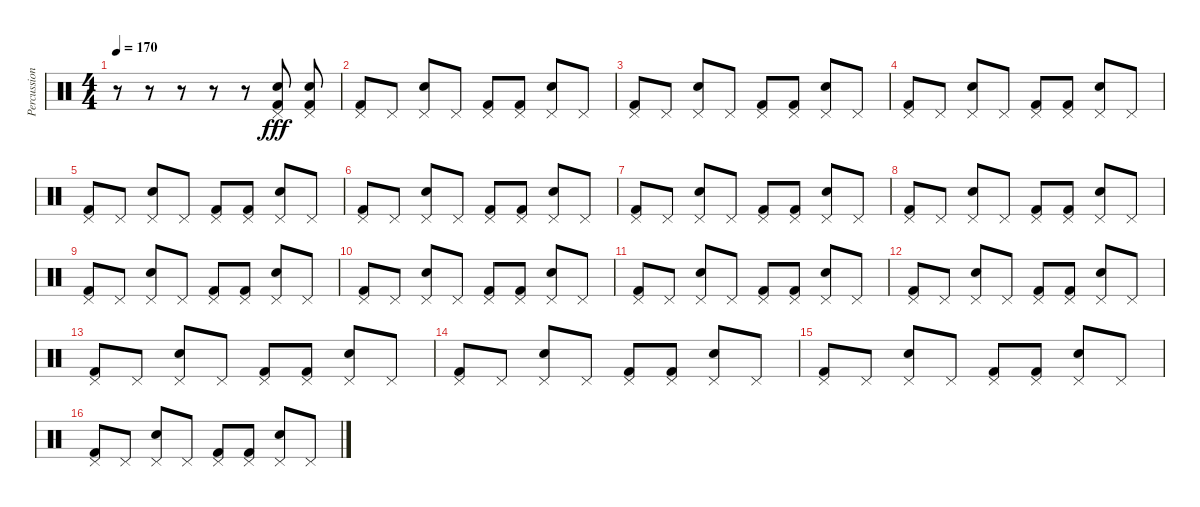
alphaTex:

\track ("Percussion" "Percussion") {instrument percussion}
\staff {score}
\articulation defaults
\ts (4 4)
\tempo 170
\clef neutral
\ks c
r.8{dy fff} r.8 r.8 r.8 r.8 ("Pedal Hi-Hat (hit)" "Snare (hit) 2" "Kick (hit) 2").8 ("Pedal Hi-Hat (hit)" "Snare (hit) 2" "Kick (hit) 2").8 |
("Pedal Hi-Hat (hit)" "Kick (hit) 2").8 "Pedal Hi-Hat (hit)".8 ("Pedal Hi-Hat (hit)" "Snare (hit) 2").8 "Pedal Hi-Hat (hit)".8 ("Pedal Hi-Hat (hit)" "Kick (hit) 2").8 ("Pedal Hi-Hat (hit)" "Kick (hit) 2").8 ("Pedal Hi-Hat (hit)" "Snare (hit) 2").8 "Pedal Hi-Hat (hit)".8 |
("Pedal Hi-Hat (hit)" "Kick (hit) 2").8 "Pedal Hi-Hat (hit)".8 ("Pedal Hi-Hat (hit)" "Snare (hit) 2").8 "Pedal Hi-Hat (hit)".8 ("Pedal Hi-Hat (hit)" "Kick (hit) 2").8 ("Pedal Hi-Hat (hit)" "Kick (hit) 2").8 ("Pedal Hi-Hat (hit)" "Snare (hit) 2").8 "Pedal Hi-Hat (hit)".8 |
("Pedal Hi-Hat (hit)" "Kick (hit) 2").8 "Pedal Hi-Hat (hit)".8 ("Pedal Hi-Hat (hit)" "Snare (hit) 2").8 "Pedal Hi-Hat (hit)".8 ("Pedal Hi-Hat (hit)" "Kick (hit) 2").8 ("Pedal Hi-Hat (hit)" "Kick (hit) 2").8 ("Pedal Hi-Hat (hit)" "Snare (hit) 2").8 "Pedal Hi-Hat (hit)".8 |
("Pedal Hi-Hat (hit)" "Kick (hit) 2").8 "Pedal Hi-Hat (hit)".8 ("Pedal Hi-Hat (hit)" "Snare (hit) 2").8 "Pedal Hi-Hat (hit)".8 ("Pedal Hi-Hat (hit)" "Kick (hit) 2").8 ("Pedal Hi-Hat (hit)" "Kick (hit) 2").8 ("Pedal Hi-Hat (hit)" "Snare (hit) 2").8 "Pedal Hi-Hat (hit)".8 |
("Pedal Hi-Hat (hit)" "Kick (hit) 2").8 "Pedal Hi-Hat (hit)".8 ("Pedal Hi-Hat (hit)" "Snare (hit) 2").8 "Pedal Hi-Hat (hit)".8 ("Pedal Hi-Hat (hit)" "Kick (hit) 2").8 ("Pedal Hi-Hat (hit)" "Kick (hit) 2").8 ("Pedal Hi-Hat (hit)" "Snare (hit) 2").8 "Pedal Hi-Hat (hit)".8 |
("Pedal Hi-Hat (hit)" "Kick (hit) 2").8 "Pedal Hi-Hat (hit)".8 ("Pedal Hi-Hat (hit)" "Snare (hit) 2").8 "Pedal Hi-Hat (hit)".8 ("Pedal Hi-Hat (hit)" "Kick (hit) 2").8 ("Pedal Hi-Hat (hit)" "Kick (hit) 2").8 ("Pedal Hi-Hat (hit)" "Snare (hit) 2").8 "Pedal Hi-Hat (hit)".8 |
("Pedal Hi-Hat (hit)" "Kick (hit) 2").8 "Pedal Hi-Hat (hit)".8 ("Pedal Hi-Hat (hit)" "Snare (hit) 2").8 "Pedal Hi-Hat (hit)".8 ("Pedal Hi-Hat (hit)" "Kick (hit) 2").8 ("Pedal Hi-Hat (hit)" "Kick (hit) 2").8 ("Pedal Hi-Hat (hit)" "Snare (hit) 2").8 "Pedal Hi-Hat (hit)".8 |
("Pedal Hi-Hat (hit)" "Kick (hit) 2").8 "Pedal Hi-Hat (hit)".8 ("Pedal Hi-Hat (hit)" "Snare (hit) 2").8 "Pedal Hi-Hat (hit)".8 ("Pedal Hi-Hat (hit)" "Kick (hit) 2").8 ("Pedal Hi-Hat (hit)" "Kick (hit) 2").8 ("Pedal Hi-Hat (hit)" "Snare (hit) 2").8 "Pedal Hi-Hat (hit)".8 |
("Pedal Hi-Hat (hit)" "Kick (hit) 2").8 "Pedal Hi-Hat (hit)".8 ("Pedal Hi-Hat (hit)" "Snare (hit) 2").8 "Pedal Hi-Hat (hit)".8 ("Pedal Hi-Hat (hit)" "Kick (hit) 2").8 ("Pedal Hi-Hat (hit)" "Kick (hit) 2").8 ("Pedal Hi-Hat (hit)" "Snare (hit) 2").8 "Pedal Hi-Hat (hit)".8 |
("Pedal Hi-Hat (hit)" "Kick (hit) 2").8 "Pedal Hi-Hat (hit)".8 ("Pedal Hi-Hat (hit)" "Snare (hit) 2").8 "Pedal Hi-Hat (hit)".8 ("Pedal Hi-Hat (hit)" "Kick (hit) 2").8 ("Pedal Hi-Hat (hit)" "Kick (hit) 2").8 ("Pedal Hi-Hat (hit)" "Snare (hit) 2").8 "Pedal Hi-Hat (hit)".8 |
("Pedal Hi-Hat (hit)" "Kick (hit) 2").8 "Pedal Hi-Hat (hit)".8 ("Pedal Hi-Hat (hit)" "Snare (hit) 2").8 "Pedal Hi-Hat (hit)".8 ("Pedal Hi-Hat (hit)" "Kick (hit) 2").8 ("Pedal Hi-Hat (hit)" "Kick (hit) 2").8 ("Pedal Hi-Hat (hit)" "Snare (hit) 2").8 "Pedal Hi-Hat (hit)".8 |
("Pedal Hi-Hat (hit)" "Kick (hit) 2").8 "Pedal Hi-Hat (hit)".8 ("Pedal Hi-Hat (hit)" "Snare (hit) 2").8 "Pedal Hi-Hat (hit)".8 ("Pedal Hi-Hat (hit)" "Kick (hit) 2").8 ("Pedal Hi-Hat (hit)" "Kick (hit) 2").8 ("Pedal Hi-Hat (hit)" "Snare (hit) 2").8 "Pedal Hi-Hat (hit)".8 |
("Pedal Hi-Hat (hit)" "Kick (hit) 2").8 "Pedal Hi-Hat (hit)".8 ("Pedal Hi-Hat (hit)" "Snare (hit) 2").8 "Pedal Hi-Hat (hit)".8 ("Pedal Hi-Hat (hit)" "Kick (hit) 2").8 ("Pedal Hi-Hat (hit)" "Kick (hit) 2").8 ("Pedal Hi-Hat (hit)" "Snare (hit) 2").8 "Pedal Hi-Hat (hit)".8 |
("Pedal Hi-Hat (hit)" "Kick (hit) 2").8 "Pedal Hi-Hat (hit)".8 ("Pedal Hi-Hat (hit)" "Snare (hit) 2").8 "Pedal Hi-Hat (hit)".8 ("Pedal Hi-Hat (hit)" "Kick (hit) 2").8 ("Pedal Hi-Hat (hit)" "Kick (hit) 2").8 ("Pedal Hi-Hat (hit)" "Snare (hit) 2").8 "Pedal Hi-Hat (hit)".8 |
("Pedal Hi-Hat (hit)" "Kick (hit) 2").8 "Pedal Hi-Hat (hit)".8 ("Pedal Hi-Hat (hit)" "Snare (hit) 2").8 "Pedal Hi-Hat (hit)".8 ("Pedal Hi-Hat (hit)" "Kick (hit) 2").8 ("Pedal Hi-Hat (hit)" "Kick (hit) 2").8 ("Pedal Hi-Hat (hit)" "Snare (hit) 2").8 "Pedal Hi-Hat (hit)".8
